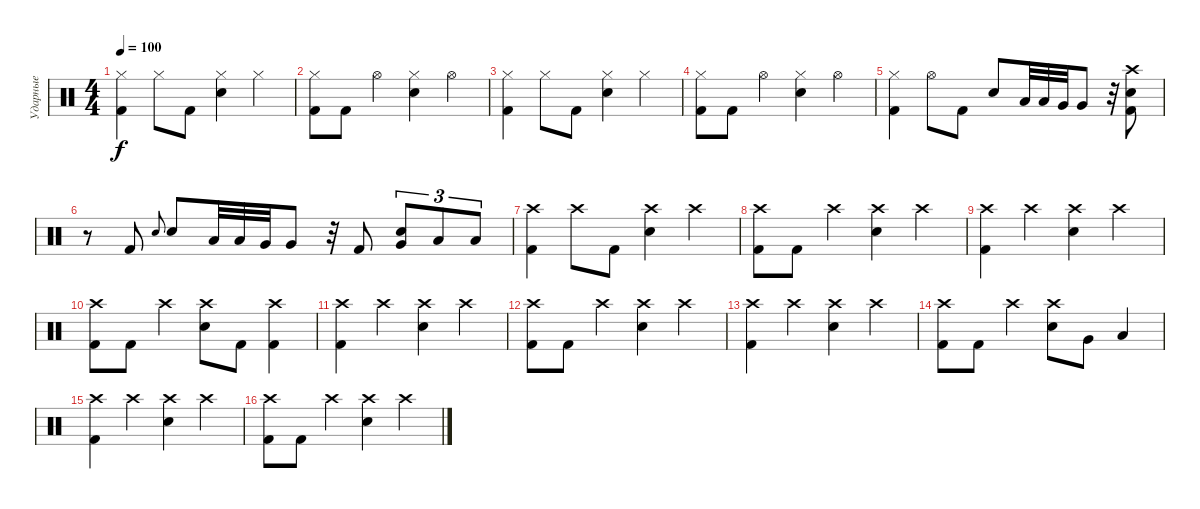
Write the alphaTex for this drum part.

\track ("Ударные" "Ударные") {instrument percussion}
\staff {score}
\articulation defaults
\ts (4 4)
\tempo 100
\clef neutral
\ks c
("Hi-Hat (closed)" "Kick (hit) 2").4{dy f} "Hi-Hat (closed)".8 "Kick (hit) 2".8 ("Hi-Hat (closed)" "Snare (hit) 2").4 "Hi-Hat (closed)".4 |
("Hi-Hat (closed)" "Kick (hit) 2").8 "Kick (hit) 2".8 "Hi-Hat (open)".4 ("Hi-Hat (closed)" "Snare (hit) 2").4 "Hi-Hat (open)".4 |
("Hi-Hat (closed)" "Kick (hit) 2").4 "Hi-Hat (closed)".8 "Kick (hit) 2".8 ("Hi-Hat (closed)" "Snare (hit) 2").4 "Hi-Hat (closed)".4 |
("Hi-Hat (closed)" "Kick (hit) 2").8 "Kick (hit) 2".8 "Hi-Hat (open)".4 ("Hi-Hat (closed)" "Snare (hit) 2").4 "Hi-Hat (open)".4 |
("Hi-Hat (closed)" "Kick (hit) 2").4 "Hi-Hat (open)".8 "Kick (hit) 2".8 "Snare (hit) 2".8 "Low Tom (hit)".32 "Low Tom (hit)".32 "Very Low Tom (hit)".32 "Very Low Tom (hit)".8 r.32 ("Crash high (hit)" "Snare (hit) 2" "Kick (hit) 2").8 |
r.8 "Kick (hit) 2".8 "Snare (hit) 2".8{gr onbeat} "Snare (hit) 2".8 "Low Tom (hit)".32 "Low Tom (hit)".32 "Very Low Tom (hit)".32 "Very Low Tom (hit)".8 r.32 "Kick (hit) 2".8 ("Very Low Tom (hit)" "Snare (hit) 2").8{tu (3 2)} "Low Floor Tom (hit)".8{tu (3 2)} "Low Floor Tom (hit)".8{tu (3 2)} |
("Crash high (hit)" "Kick (hit) 2").4 "Crash high (hit)".8 "Kick (hit) 2".8 ("Crash high (hit)" "Snare (hit) 2").4 "Crash high (hit)".4 |
("Crash high (hit)" "Kick (hit) 2").8 "Kick (hit) 2".8 "Crash high (hit)".4 ("Crash high (hit)" "Snare (hit) 2").4 "Crash high (hit)".4 |
("Crash high (hit)" "Kick (hit) 2").4 "Crash high (hit)".4 ("Crash high (hit)" "Snare (hit) 2").4 "Crash high (hit)".4 |
("Crash high (hit)" "Kick (hit) 2").8 "Kick (hit) 2".8 "Crash high (hit)".4 ("Crash high (hit)" "Snare (hit) 2").8 "Kick (hit) 2".8 ("Crash high (hit)" "Kick (hit) 2").4 |
("Crash high (hit)" "Kick (hit) 2").4 "Crash high (hit)".4 ("Crash high (hit)" "Snare (hit) 2").4 "Crash high (hit)".4 |
("Crash high (hit)" "Kick (hit) 2").8 "Kick (hit) 2".8 "Crash high (hit)".4 ("Crash high (hit)" "Snare (hit) 2").4 "Crash high (hit)".4 |
("Crash high (hit)" "Kick (hit) 2").4 "Crash high (hit)".4 ("Crash high (hit)" "Snare (hit) 2").4 "Crash high (hit)".4 |
("Crash high (hit)" "Kick (hit) 2").8 "Kick (hit) 2".8 "Crash high (hit)".4 ("Crash high (hit)" "Snare (hit) 2").8 "Very Low Tom (hit)".8 "Low Floor Tom (hit)".4 |
("Crash high (hit)" "Kick (hit) 2").4 "Crash high (hit)".4 ("Crash high (hit)" "Snare (hit) 2").4 "Crash high (hit)".4 |
("Crash high (hit)" "Kick (hit) 2").8 "Kick (hit) 2".8 "Crash high (hit)".4 ("Crash high (hit)" "Snare (hit) 2").4 "Crash high (hit)".4
